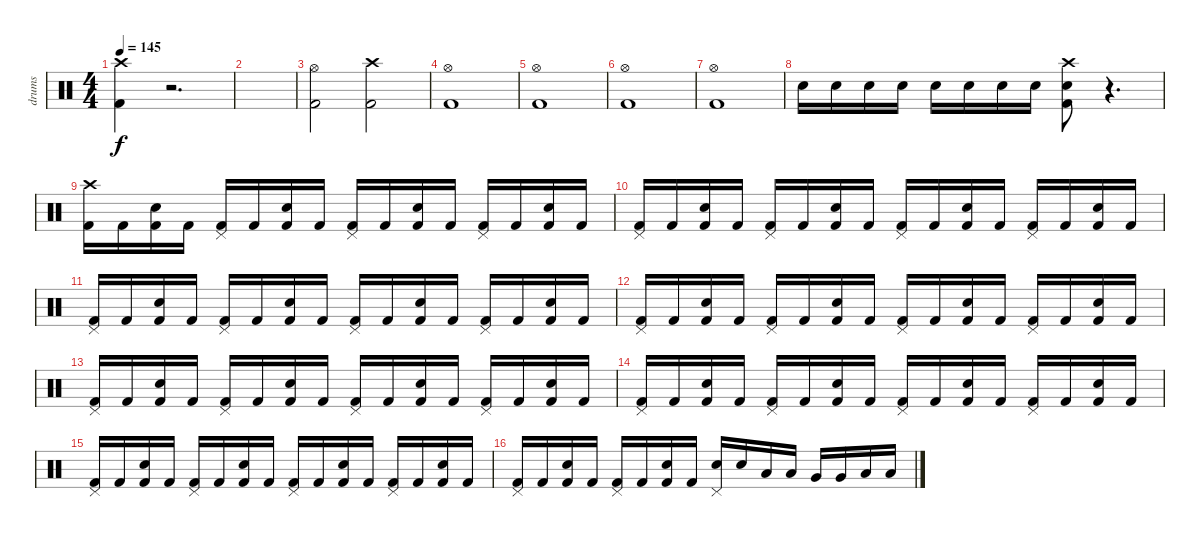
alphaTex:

\track ("drums" "drums") {instrument percussion}
\staff {score}
\articulation defaults
\ts (4 4)
\tempo 145
\clef neutral
\ks c
("Crash high (hit)" "Kick (hit) 2").4{dy f} r.2{d} |
|
("Hi-Hat (open)" "Kick (hit) 2").2{volume 10} ("Crash high (hit)" "Kick (hit) 2").2 |
("Hi-Hat (open)" "Kick (hit) 2").1 |
("Hi-Hat (open)" "Kick (hit) 2").1 |
("Hi-Hat (open)" "Kick (hit) 2").1 |
("Hi-Hat (open)" "Kick (hit) 2").1 |
"Electric Snare (hit)".16{volume 13} "Electric Snare (hit)".16 "Electric Snare (hit)".16 "Electric Snare (hit)".16 "Electric Snare (hit)".16 "Electric Snare (hit)".16 "Electric Snare (hit)".16 "Electric Snare (hit)".16 ("Crash high (hit)" "Electric Snare (hit)" "Kick (hit) 2").8 r.4{d} |
("Crash high (hit)" "Kick (hit) 2").16 "Kick (hit) 2".16 ("Electric Snare (hit)" "Kick (hit) 2").16 "Kick (hit) 2".16 ("Pedal Hi-Hat (hit)" "Kick (hit) 2").16 "Kick (hit) 2".16 ("Electric Snare (hit)" "Kick (hit) 2").16 "Kick (hit) 2".16 ("Pedal Hi-Hat (hit)" "Kick (hit) 2").16 "Kick (hit) 2".16 ("Electric Snare (hit)" "Kick (hit) 2").16 "Kick (hit) 2".16 ("Pedal Hi-Hat (hit)" "Kick (hit) 2").16 "Kick (hit) 2".16 ("Electric Snare (hit)" "Kick (hit) 2").16 "Kick (hit) 2".16 |
("Pedal Hi-Hat (hit)" "Kick (hit) 2").16 "Kick (hit) 2".16 ("Electric Snare (hit)" "Kick (hit) 2").16 "Kick (hit) 2".16 ("Pedal Hi-Hat (hit)" "Kick (hit) 2").16 "Kick (hit) 2".16 ("Electric Snare (hit)" "Kick (hit) 2").16 "Kick (hit) 2".16 ("Pedal Hi-Hat (hit)" "Kick (hit) 2").16 "Kick (hit) 2".16 ("Electric Snare (hit)" "Kick (hit) 2").16 "Kick (hit) 2".16 ("Pedal Hi-Hat (hit)" "Kick (hit) 2").16 "Kick (hit) 2".16 ("Electric Snare (hit)" "Kick (hit) 2").16 "Kick (hit) 2".16 |
("Pedal Hi-Hat (hit)" "Kick (hit) 2").16 "Kick (hit) 2".16 ("Electric Snare (hit)" "Kick (hit) 2").16 "Kick (hit) 2".16 ("Pedal Hi-Hat (hit)" "Kick (hit) 2").16 "Kick (hit) 2".16 ("Electric Snare (hit)" "Kick (hit) 2").16 "Kick (hit) 2".16 ("Pedal Hi-Hat (hit)" "Kick (hit) 2").16 "Kick (hit) 2".16 ("Electric Snare (hit)" "Kick (hit) 2").16 "Kick (hit) 2".16 ("Pedal Hi-Hat (hit)" "Kick (hit) 2").16 "Kick (hit) 2".16 ("Electric Snare (hit)" "Kick (hit) 2").16 "Kick (hit) 2".16 |
("Pedal Hi-Hat (hit)" "Kick (hit) 2").16 "Kick (hit) 2".16 ("Electric Snare (hit)" "Kick (hit) 2").16 "Kick (hit) 2".16 ("Pedal Hi-Hat (hit)" "Kick (hit) 2").16 "Kick (hit) 2".16 ("Electric Snare (hit)" "Kick (hit) 2").16 "Kick (hit) 2".16 ("Pedal Hi-Hat (hit)" "Kick (hit) 2").16 "Kick (hit) 2".16 ("Electric Snare (hit)" "Kick (hit) 2").16 "Kick (hit) 2".16 ("Pedal Hi-Hat (hit)" "Kick (hit) 2").16 "Kick (hit) 2".16 ("Electric Snare (hit)" "Kick (hit) 2").16 "Kick (hit) 2".16 |
("Pedal Hi-Hat (hit)" "Kick (hit) 2").16 "Kick (hit) 2".16 ("Electric Snare (hit)" "Kick (hit) 2").16 "Kick (hit) 2".16 ("Pedal Hi-Hat (hit)" "Kick (hit) 2").16 "Kick (hit) 2".16 ("Electric Snare (hit)" "Kick (hit) 2").16 "Kick (hit) 2".16 ("Pedal Hi-Hat (hit)" "Kick (hit) 2").16 "Kick (hit) 2".16 ("Electric Snare (hit)" "Kick (hit) 2").16 "Kick (hit) 2".16 ("Pedal Hi-Hat (hit)" "Kick (hit) 2").16 "Kick (hit) 2".16 ("Electric Snare (hit)" "Kick (hit) 2").16 "Kick (hit) 2".16 |
("Pedal Hi-Hat (hit)" "Kick (hit) 2").16 "Kick (hit) 2".16 ("Electric Snare (hit)" "Kick (hit) 2").16 "Kick (hit) 2".16 ("Pedal Hi-Hat (hit)" "Kick (hit) 2").16 "Kick (hit) 2".16 ("Electric Snare (hit)" "Kick (hit) 2").16 "Kick (hit) 2".16 ("Pedal Hi-Hat (hit)" "Kick (hit) 2").16 "Kick (hit) 2".16 ("Electric Snare (hit)" "Kick (hit) 2").16 "Kick (hit) 2".16 ("Pedal Hi-Hat (hit)" "Kick (hit) 2").16 "Kick (hit) 2".16 ("Electric Snare (hit)" "Kick (hit) 2").16 "Kick (hit) 2".16 |
("Pedal Hi-Hat (hit)" "Kick (hit) 2").16 "Kick (hit) 2".16 ("Electric Snare (hit)" "Kick (hit) 2").16 "Kick (hit) 2".16 ("Pedal Hi-Hat (hit)" "Kick (hit) 2").16 "Kick (hit) 2".16 ("Electric Snare (hit)" "Kick (hit) 2").16 "Kick (hit) 2".16 ("Pedal Hi-Hat (hit)" "Kick (hit) 2").16 "Kick (hit) 2".16 ("Electric Snare (hit)" "Kick (hit) 2").16 "Kick (hit) 2".16 ("Pedal Hi-Hat (hit)" "Kick (hit) 2").16 "Kick (hit) 2".16 ("Electric Snare (hit)" "Kick (hit) 2").16 "Kick (hit) 2".16 |
("Pedal Hi-Hat (hit)" "Kick (hit) 2").16 "Kick (hit) 2".16 ("Electric Snare (hit)" "Kick (hit) 2").16 "Kick (hit) 2".16 ("Pedal Hi-Hat (hit)" "Kick (hit) 2").16 "Kick (hit) 2".16 ("Electric Snare (hit)" "Kick (hit) 2").16 "Kick (hit) 2".16 ("Pedal Hi-Hat (hit)" "Snare (hit) 2").16 "Snare (hit) 2".16 "Low Tom (hit)".16 "Low Tom (hit)".16 "Very Low Tom (hit)".16 "Very Low Tom (hit)".16 "Low Floor Tom (hit)".16 "Low Floor Tom (hit)".16
